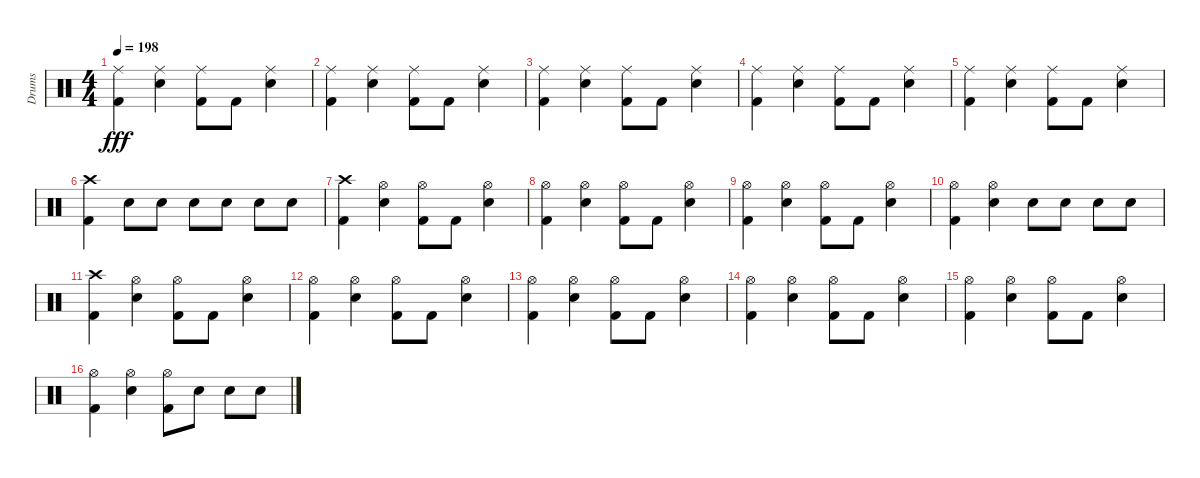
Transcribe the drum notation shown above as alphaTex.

\track ("Drums" "Drums") {instrument percussion}
\staff {score}
\articulation defaults
\ts (4 4)
\tempo 198
\clef neutral
\ks c
("Ride (middle)" "Kick (hit) 2").4{dy fff} ("Ride (middle)" "Electric Snare (hit)").4 ("Ride (middle)" "Kick (hit) 2").8 "Kick (hit) 2".8 ("Ride (middle)" "Electric Snare (hit)").4 |
("Ride (middle)" "Kick (hit) 2").4 ("Ride (middle)" "Electric Snare (hit)").4 ("Ride (middle)" "Kick (hit) 2").8 "Kick (hit) 2".8 ("Ride (middle)" "Electric Snare (hit)").4 |
("Ride (middle)" "Kick (hit) 2").4 ("Ride (middle)" "Electric Snare (hit)").4 ("Ride (middle)" "Kick (hit) 2").8 "Kick (hit) 2".8 ("Ride (middle)" "Electric Snare (hit)").4 |
("Ride (middle)" "Kick (hit) 2").4 ("Ride (middle)" "Electric Snare (hit)").4 ("Ride (middle)" "Kick (hit) 2").8 "Kick (hit) 2".8 ("Ride (middle)" "Electric Snare (hit)").4 |
("Ride (middle)" "Kick (hit) 2").4 ("Ride (middle)" "Electric Snare (hit)").4 ("Ride (middle)" "Kick (hit) 2").8 "Kick (hit) 2".8 ("Ride (middle)" "Electric Snare (hit)").4 |
("Crash high (hit)" "Kick (hit) 2").4 "Electric Snare (hit)".8 "Electric Snare (hit)".8 "Electric Snare (hit)".8 "Electric Snare (hit)".8 "Electric Snare (hit)".8 "Electric Snare (hit)".8 |
("Crash high (hit)" "Kick (hit) 2").4 ("Hi-Hat (open)" "Electric Snare (hit)").4 ("Hi-Hat (open)" "Kick (hit) 2").8 "Kick (hit) 2".8 ("Hi-Hat (open)" "Electric Snare (hit)").4 |
("Hi-Hat (open)" "Kick (hit) 2").4 ("Hi-Hat (open)" "Electric Snare (hit)").4 ("Hi-Hat (open)" "Kick (hit) 2").8 "Kick (hit) 2".8 ("Hi-Hat (open)" "Electric Snare (hit)").4 |
("Hi-Hat (open)" "Kick (hit) 2").4 ("Hi-Hat (open)" "Electric Snare (hit)").4 ("Hi-Hat (open)" "Kick (hit) 2").8 "Kick (hit) 2".8 ("Hi-Hat (open)" "Electric Snare (hit)").4 |
("Hi-Hat (open)" "Kick (hit) 2").4 ("Hi-Hat (open)" "Electric Snare (hit)").4 "Electric Snare (hit)".8 "Electric Snare (hit)".8 "Electric Snare (hit)".8 "Electric Snare (hit)".8 |
("Crash high (hit)" "Kick (hit) 2").4 ("Hi-Hat (open)" "Electric Snare (hit)").4 ("Hi-Hat (open)" "Kick (hit) 2").8 "Kick (hit) 2".8 ("Hi-Hat (open)" "Electric Snare (hit)").4 |
("Hi-Hat (open)" "Kick (hit) 2").4 ("Hi-Hat (open)" "Electric Snare (hit)").4 ("Hi-Hat (open)" "Kick (hit) 2").8 "Kick (hit) 2".8 ("Hi-Hat (open)" "Electric Snare (hit)").4 |
("Hi-Hat (open)" "Kick (hit) 2").4 ("Hi-Hat (open)" "Electric Snare (hit)").4 ("Hi-Hat (open)" "Kick (hit) 2").8 "Kick (hit) 2".8 ("Hi-Hat (open)" "Electric Snare (hit)").4 |
("Hi-Hat (open)" "Kick (hit) 2").4 ("Hi-Hat (open)" "Electric Snare (hit)").4 ("Hi-Hat (open)" "Kick (hit) 2").8 "Kick (hit) 2".8 ("Hi-Hat (open)" "Electric Snare (hit)").4 |
("Hi-Hat (open)" "Kick (hit) 2").4 ("Hi-Hat (open)" "Electric Snare (hit)").4 ("Hi-Hat (open)" "Kick (hit) 2").8 "Kick (hit) 2".8 ("Hi-Hat (open)" "Electric Snare (hit)").4 |
("Hi-Hat (open)" "Kick (hit) 2").4 ("Hi-Hat (open)" "Electric Snare (hit)").4 ("Hi-Hat (open)" "Kick (hit) 2").8 "Electric Snare (hit)".8 "Electric Snare (hit)".8 "Electric Snare (hit)".8
